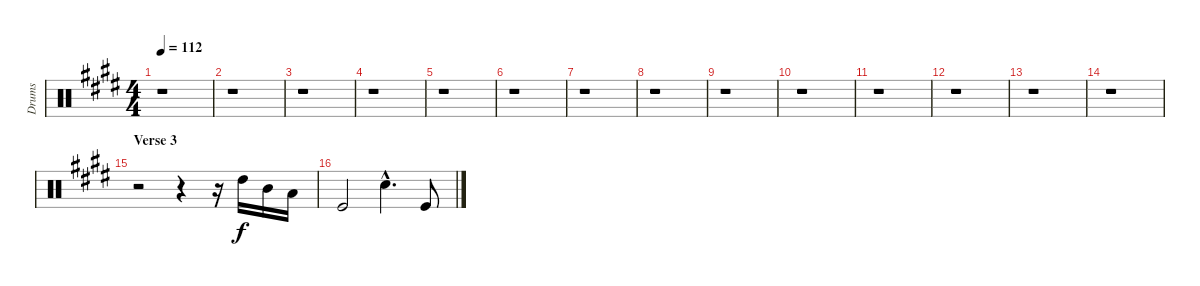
\track ("Drums" "Drums") {instrument percussion}
\staff {score}
\articulation defaults
\ts (4 4)
\tempo 112
\clef neutral
\ks e
r.1{dy f} |
r.1 |
r.1 |
r.1 |
r.1 |
r.1 |
r.1 |
r.1 |
r.1 |
r.1 |
r.1 |
r.1 |
r.1 |
r.1 |
\section ("" "Verse 3")
r.2 r.4 r.16 "High Tom (hit)".16 "Mid Tom (hit)".16 "Low Tom (hit)".16 |
"Kick (hit)".2 "Snare (hit) 2"{hac}.4{d} "Kick (hit)".8
